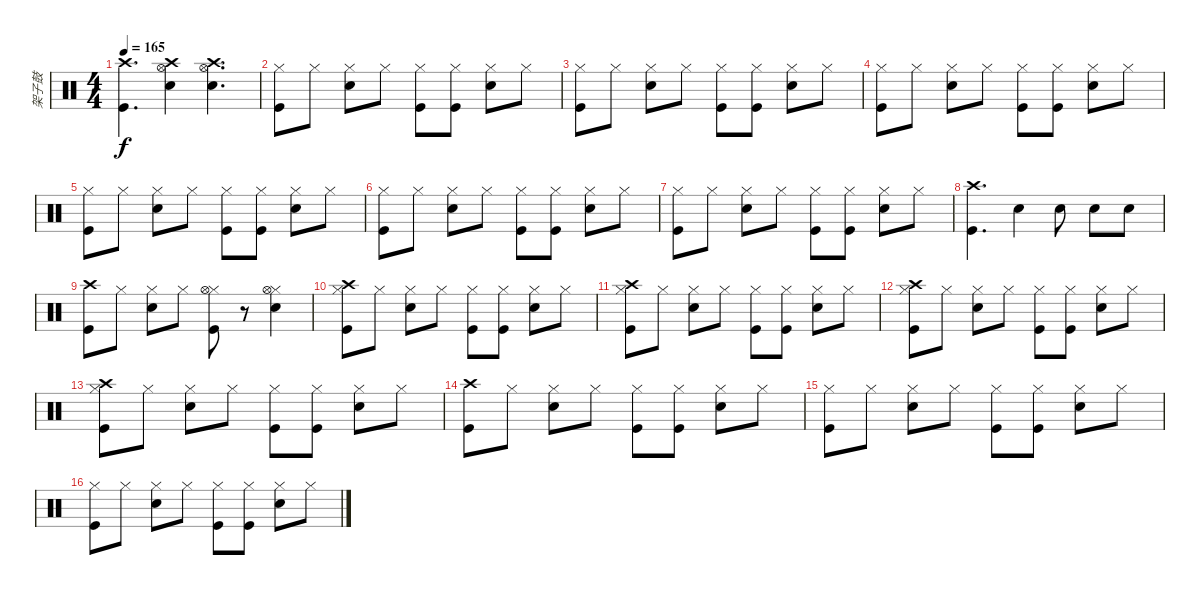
\track ("架子鼓" "架子鼓") {instrument percussion}
\staff {score}
\articulation defaults
\ts (4 4)
\tempo 165
\clef neutral
\ks c
("Crash high (hit)" "Kick (hit)").4{d dy f} ("Crash high (hit)" "Hi-Hat (open)" "Snare (hit) 2").4 ("Crash high (hit)" "Hi-Hat (open)" "Snare (hit) 2").4{d} |
("Hi-Hat (closed)" "Kick (hit)").8 "Hi-Hat (closed)".8 ("Hi-Hat (closed)" "Snare (hit) 2").8 "Hi-Hat (closed)".8 ("Hi-Hat (closed)" "Kick (hit)").8 ("Hi-Hat (closed)" "Kick (hit)").8 ("Hi-Hat (closed)" "Snare (hit) 2").8 "Hi-Hat (closed)".8 |
("Hi-Hat (closed)" "Kick (hit)").8 "Hi-Hat (closed)".8 ("Hi-Hat (closed)" "Snare (hit) 2").8 "Hi-Hat (closed)".8 ("Hi-Hat (closed)" "Kick (hit)").8 ("Hi-Hat (closed)" "Kick (hit)").8 ("Hi-Hat (closed)" "Snare (hit) 2").8 "Hi-Hat (closed)".8 |
("Hi-Hat (closed)" "Kick (hit)").8 "Hi-Hat (closed)".8 ("Hi-Hat (closed)" "Snare (hit) 2").8 "Hi-Hat (closed)".8 ("Hi-Hat (closed)" "Kick (hit)").8 ("Hi-Hat (closed)" "Kick (hit)").8 ("Hi-Hat (closed)" "Snare (hit) 2").8 "Hi-Hat (closed)".8 |
("Hi-Hat (closed)" "Kick (hit)").8 "Hi-Hat (closed)".8 ("Hi-Hat (closed)" "Snare (hit) 2").8 "Hi-Hat (closed)".8 ("Hi-Hat (closed)" "Kick (hit)").8 ("Hi-Hat (closed)" "Kick (hit)").8 ("Hi-Hat (closed)" "Snare (hit) 2").8 "Hi-Hat (closed)".8 |
("Hi-Hat (closed)" "Kick (hit)").8 "Hi-Hat (closed)".8 ("Hi-Hat (closed)" "Snare (hit) 2").8 "Hi-Hat (closed)".8 ("Hi-Hat (closed)" "Kick (hit)").8 ("Hi-Hat (closed)" "Kick (hit)").8 ("Hi-Hat (closed)" "Snare (hit) 2").8 "Hi-Hat (closed)".8 |
("Hi-Hat (closed)" "Kick (hit)").8 "Hi-Hat (closed)".8 ("Hi-Hat (closed)" "Snare (hit) 2").8 "Hi-Hat (closed)".8 ("Hi-Hat (closed)" "Kick (hit)").8 ("Hi-Hat (closed)" "Kick (hit)").8 ("Hi-Hat (closed)" "Snare (hit) 2").8 "Hi-Hat (closed)".8 |
("Crash high (hit)" "Kick (hit)").4{d} "Snare (hit) 2".4 "Snare (hit) 2".8 "Snare (hit) 2".8 "Snare (hit) 2".8 |
("Crash high (hit)" "Kick (hit)").8 "Hi-Hat (closed)".8 ("Hi-Hat (closed)" "Snare (hit) 2").8 "Hi-Hat (closed)".8 ("Hi-Hat (closed)" "Kick (hit)" "Hi-Hat (open)").8 r.8 ("Hi-Hat (closed)" "Snare (hit) 2" "Hi-Hat (open)").4 |
("Hi-Hat (closed)" "Kick (hit)" "Crash high (hit)").8 "Hi-Hat (closed)".8 ("Hi-Hat (closed)" "Snare (hit) 2").8 "Hi-Hat (closed)".8 ("Hi-Hat (closed)" "Kick (hit)").8 ("Hi-Hat (closed)" "Kick (hit)").8 ("Hi-Hat (closed)" "Snare (hit) 2").8 "Hi-Hat (closed)".8 |
("Hi-Hat (closed)" "Kick (hit)" "Crash high (hit)").8 "Hi-Hat (closed)".8 ("Hi-Hat (closed)" "Snare (hit) 2").8 "Hi-Hat (closed)".8 ("Hi-Hat (closed)" "Kick (hit)").8 ("Hi-Hat (closed)" "Kick (hit)").8 ("Hi-Hat (closed)" "Snare (hit) 2").8 "Hi-Hat (closed)".8 |
("Hi-Hat (closed)" "Kick (hit)" "Crash high (hit)").8 "Hi-Hat (closed)".8 ("Hi-Hat (closed)" "Snare (hit) 2").8 "Hi-Hat (closed)".8 ("Hi-Hat (closed)" "Kick (hit)").8 ("Hi-Hat (closed)" "Kick (hit)").8 ("Hi-Hat (closed)" "Snare (hit) 2").8 "Hi-Hat (closed)".8 |
("Hi-Hat (closed)" "Kick (hit)" "Crash high (hit)").8 "Hi-Hat (closed)".8 ("Hi-Hat (closed)" "Snare (hit) 2").8 "Hi-Hat (closed)".8 ("Hi-Hat (closed)" "Kick (hit)").8 ("Hi-Hat (closed)" "Kick (hit)").8 ("Hi-Hat (closed)" "Snare (hit) 2").8 "Hi-Hat (closed)".8 |
("Crash high (hit)" "Kick (hit)").8 "Hi-Hat (closed)".8 ("Hi-Hat (closed)" "Snare (hit) 2").8 "Hi-Hat (closed)".8 ("Hi-Hat (closed)" "Kick (hit)").8 ("Hi-Hat (closed)" "Kick (hit)").8 ("Hi-Hat (closed)" "Snare (hit) 2").8 "Hi-Hat (closed)".8 |
("Hi-Hat (closed)" "Kick (hit)").8 "Hi-Hat (closed)".8 ("Hi-Hat (closed)" "Snare (hit) 2").8 "Hi-Hat (closed)".8 ("Hi-Hat (closed)" "Kick (hit)").8 ("Hi-Hat (closed)" "Kick (hit)").8 ("Hi-Hat (closed)" "Snare (hit) 2").8 "Hi-Hat (closed)".8 |
("Hi-Hat (closed)" "Kick (hit)").8 "Hi-Hat (closed)".8 ("Hi-Hat (closed)" "Snare (hit) 2").8 "Hi-Hat (closed)".8 ("Hi-Hat (closed)" "Kick (hit)").8 ("Hi-Hat (closed)" "Kick (hit)").8 ("Hi-Hat (closed)" "Snare (hit) 2").8 "Hi-Hat (closed)".8
